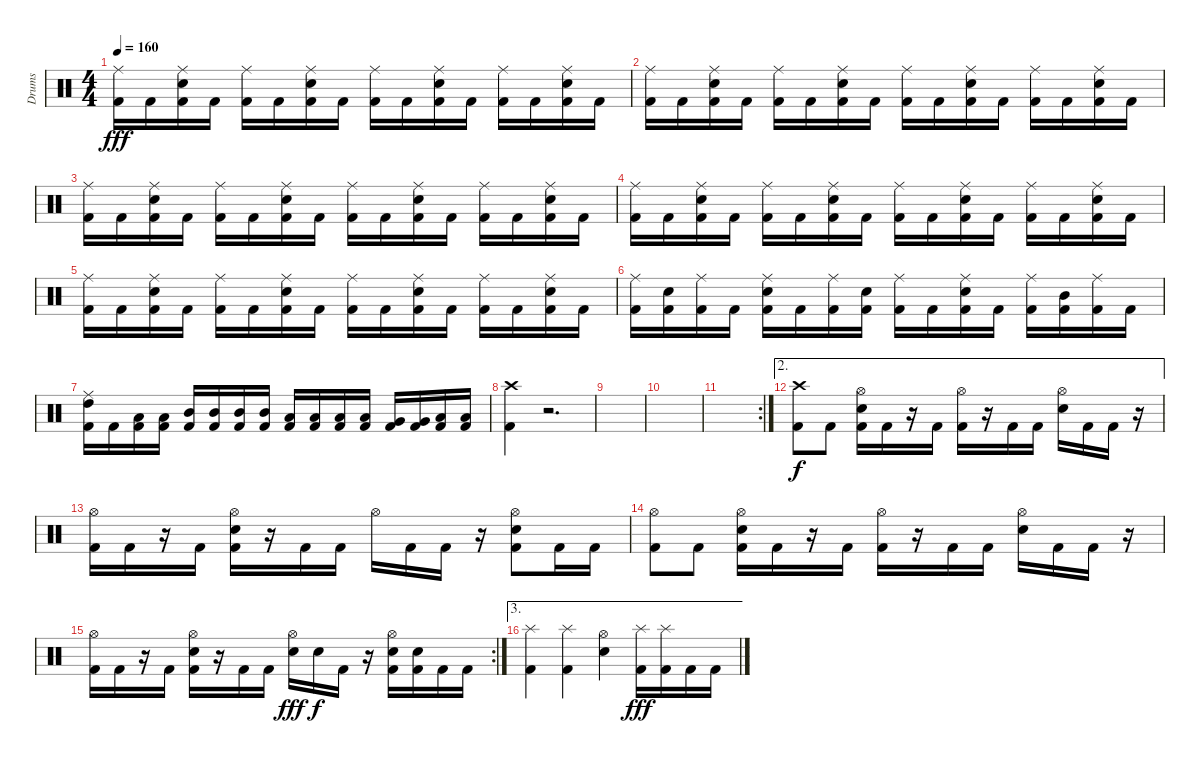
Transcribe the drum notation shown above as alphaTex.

\track ("Drums" "Drums") {instrument percussion}
\staff {score}
\articulation defaults
\ts (4 4)
\tempo 160
\clef neutral
\ks c
("Ride (middle)" "Kick (hit) 2").16{dy fff} "Kick (hit) 2".16 ("Ride (middle)" "Electric Snare (hit)" "Kick (hit) 2").16 "Kick (hit) 2".16 ("Ride (middle)" "Kick (hit) 2").16 "Kick (hit) 2".16 ("Ride (middle)" "Electric Snare (hit)" "Kick (hit) 2").16 "Kick (hit) 2".16 ("Ride (middle)" "Kick (hit) 2").16 "Kick (hit) 2".16 ("Ride (middle)" "Electric Snare (hit)" "Kick (hit) 2").16 "Kick (hit) 2".16 ("Ride (middle)" "Kick (hit) 2").16 "Kick (hit) 2".16 ("Ride (middle)" "Electric Snare (hit)" "Kick (hit) 2").16 "Kick (hit) 2".16 |
("Ride (middle)" "Kick (hit) 2").16 "Kick (hit) 2".16 ("Ride (middle)" "Electric Snare (hit)" "Kick (hit) 2").16 "Kick (hit) 2".16 ("Ride (middle)" "Kick (hit) 2").16 "Kick (hit) 2".16 ("Ride (middle)" "Electric Snare (hit)" "Kick (hit) 2").16 "Kick (hit) 2".16 ("Ride (middle)" "Kick (hit) 2").16 "Kick (hit) 2".16 ("Ride (middle)" "Electric Snare (hit)" "Kick (hit) 2").16 "Kick (hit) 2".16 ("Ride (middle)" "Kick (hit) 2").16 "Kick (hit) 2".16 ("Ride (middle)" "Electric Snare (hit)" "Kick (hit) 2").16 "Kick (hit) 2".16 |
("Ride (middle)" "Kick (hit) 2").16 "Kick (hit) 2".16 ("Ride (middle)" "Electric Snare (hit)" "Kick (hit) 2").16 "Kick (hit) 2".16 ("Ride (middle)" "Kick (hit) 2").16 "Kick (hit) 2".16 ("Ride (middle)" "Electric Snare (hit)" "Kick (hit) 2").16 "Kick (hit) 2".16 ("Ride (middle)" "Kick (hit) 2").16 "Kick (hit) 2".16 ("Ride (middle)" "Electric Snare (hit)" "Kick (hit) 2").16 "Kick (hit) 2".16 ("Ride (middle)" "Kick (hit) 2").16 "Kick (hit) 2".16 ("Ride (middle)" "Electric Snare (hit)" "Kick (hit) 2").16 "Kick (hit) 2".16 |
("Ride (middle)" "Kick (hit) 2").16 "Kick (hit) 2".16 ("Ride (middle)" "Electric Snare (hit)" "Kick (hit) 2").16 "Kick (hit) 2".16 ("Ride (middle)" "Kick (hit) 2").16 "Kick (hit) 2".16 ("Ride (middle)" "Electric Snare (hit)" "Kick (hit) 2").16 "Kick (hit) 2".16 ("Ride (middle)" "Kick (hit) 2").16 "Kick (hit) 2".16 ("Ride (middle)" "Electric Snare (hit)" "Kick (hit) 2").16 "Kick (hit) 2".16 ("Ride (middle)" "Kick (hit) 2").16 "Kick (hit) 2".16 ("Ride (middle)" "Electric Snare (hit)" "Kick (hit) 2").16 "Kick (hit) 2".16 |
("Ride (middle)" "Kick (hit) 2").16 "Kick (hit) 2".16 ("Ride (middle)" "Electric Snare (hit)" "Kick (hit) 2").16 "Kick (hit) 2".16 ("Ride (middle)" "Kick (hit) 2").16 "Kick (hit) 2".16 ("Ride (middle)" "Electric Snare (hit)" "Kick (hit) 2").16 "Kick (hit) 2".16 ("Ride (middle)" "Kick (hit) 2").16 "Kick (hit) 2".16 ("Ride (middle)" "Electric Snare (hit)" "Kick (hit) 2").16 "Kick (hit) 2".16 ("Ride (middle)" "Kick (hit) 2").16 "Kick (hit) 2".16 ("Ride (middle)" "Electric Snare (hit)" "Kick (hit) 2").16 "Kick (hit) 2".16 |
("Ride (middle)" "Kick (hit) 2").16 ("Electric Snare (hit)" "Kick (hit) 2").16 ("Ride (middle)" "Kick (hit) 2").16 "Kick (hit) 2".16 ("Ride (middle)" "Electric Snare (hit)" "Kick (hit) 2").16 "Kick (hit) 2".16 ("Ride (middle)" "Kick (hit) 2").16 ("Electric Snare (hit)" "Kick (hit) 2").16 ("Ride (middle)" "Kick (hit) 2").16 "Kick (hit) 2".16 ("Ride (middle)" "Electric Snare (hit)" "Kick (hit) 2").16 "Kick (hit) 2".16 ("Ride (middle)" "Kick (hit) 2").16 ("Mid Tom (hit)" "Kick (hit) 2").16 ("Ride (middle)" "Kick (hit) 2").16 "Kick (hit) 2".16 |
("Ride (middle)" "High Tom (hit)" "Kick (hit) 2").16 "Kick (hit) 2".16 ("Low Floor Tom (hit)" "Kick (hit) 2").16 ("Low Floor Tom (hit)" "Kick (hit) 2").16 ("Mid Tom (hit)" "Kick (hit) 2").16 ("Mid Tom (hit)" "Kick (hit) 2").16 ("Mid Tom (hit)" "Kick (hit) 2").16 ("Mid Tom (hit)" "Kick (hit) 2").16 ("Low Tom (hit)" "Kick (hit) 2").16 ("Low Tom (hit)" "Kick (hit) 2").16 ("Low Tom (hit)" "Kick (hit) 2").16 ("Low Tom (hit)" "Kick (hit) 2").16 ("Very Low Tom (hit)" "Kick (hit) 2").16 ("Very Low Tom (hit)" "Kick (hit) 2").16 ("Low Floor Tom (hit)" "Kick (hit) 2").16 ("Low Floor Tom (hit)" "Kick (hit) 2").16 |
("Crash high (hit)" "Kick (hit) 2").4 r.2{d} |
|
|
\rc 2
|
\ae 2
("Crash high (hit)" "Kick (hit) 2").8{dy f} "Kick (hit) 2".8 ("Electric Snare (hit)" "Hi-Hat (open)" "Kick (hit) 2").16 "Kick (hit) 2".16 r.16 "Kick (hit) 2".16 ("Hi-Hat (open)" "Kick (hit) 2").16 r.16 "Kick (hit) 2".16 "Kick (hit) 2".16 ("Electric Snare (hit)" "Hi-Hat (open)").16 "Kick (hit) 2".16 "Kick (hit) 2".16 r.16 |
("Hi-Hat (open)" "Kick (hit) 2").16 "Kick (hit) 2".16 r.16 "Kick (hit) 2".16 ("Electric Snare (hit)" "Hi-Hat (open)" "Kick (hit) 2").16 r.16 "Kick (hit) 2".16 "Kick (hit) 2".16 "Hi-Hat (open)".16 "Kick (hit) 2".16 "Kick (hit) 2".16 r.16 ("Electric Snare (hit)" "Hi-Hat (open)" "Kick (hit) 2").8 "Kick (hit) 2".16 "Kick (hit) 2".16 |
("Hi-Hat (open)" "Kick (hit) 2").8 "Kick (hit) 2".8 ("Electric Snare (hit)" "Hi-Hat (open)" "Kick (hit) 2").16 "Kick (hit) 2".16 r.16 "Kick (hit) 2".16 ("Hi-Hat (open)" "Kick (hit) 2").16 r.16 "Kick (hit) 2".16 "Kick (hit) 2".16 ("Electric Snare (hit)" "Hi-Hat (open)").16 "Kick (hit) 2".16 "Kick (hit) 2".16 r.16 |
\rc 2
("Hi-Hat (open)" "Kick (hit) 2").16 "Kick (hit) 2".16 r.16 "Kick (hit) 2".16 ("Electric Snare (hit)" "Hi-Hat (open)" "Kick (hit) 2").16 r.16 "Kick (hit) 2".16 "Kick (hit) 2".16 ("Hi-Hat (open)" "Electric Snare (hit)").16{dy fff} "Electric Snare (hit)".16{dy f} "Kick (hit) 2".16 r.16 ("Electric Snare (hit)" "Hi-Hat (open)" "Kick (hit) 2").16 ("Electric Snare (hit)" "Kick (hit) 2").16 "Kick (hit) 2".16 "Kick (hit) 2".16 |
\ae 3
("Splash (hit)" "Kick (hit) 2").4 ("Splash (hit)" "Kick (hit) 2").4 ("Hi-Hat (open)" "Electric Snare (hit)").4 ("Splash (hit)" "Kick (hit) 2").16{dy fff} ("Splash (hit)" "Kick (hit) 2").16 "Kick (hit) 2".16 "Kick (hit) 2".16
